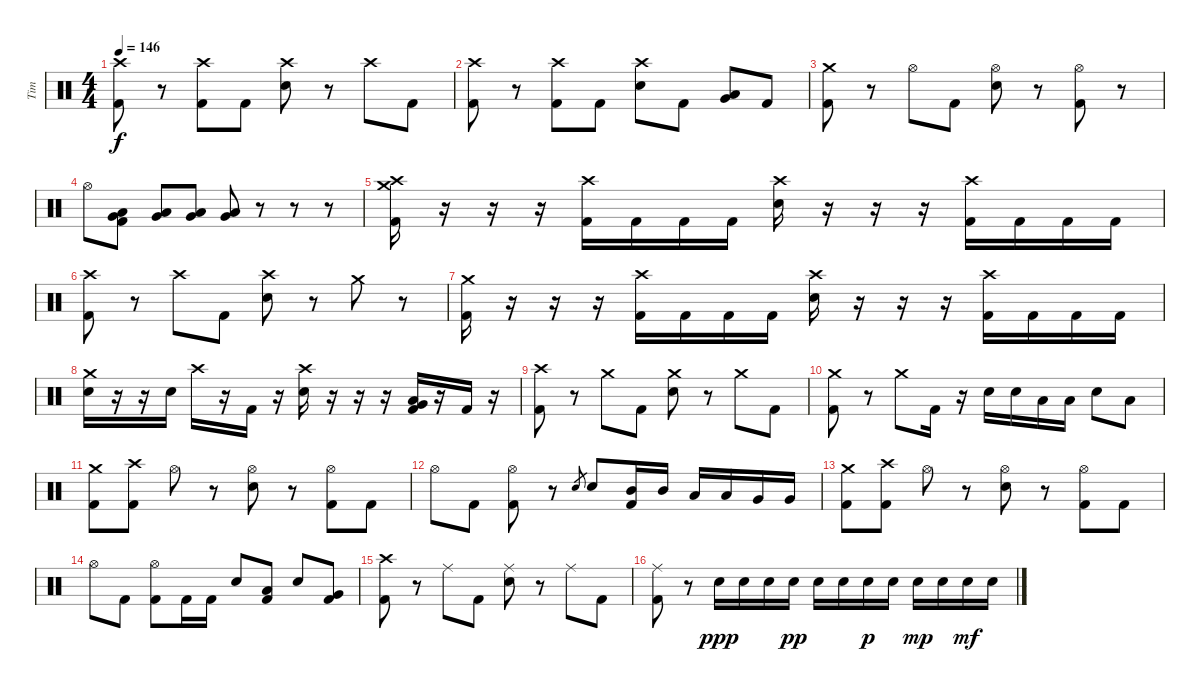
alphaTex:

\track ("Tim" "Tim") {instrument percussion}
\staff {score}
\articulation defaults
\ts (4 4)
\tempo 146
\clef neutral
\ks c
("Crash high (hit)" "Kick (hit) 2").8{dy f} r.8 ("Crash high (hit)" "Kick (hit) 2").8 "Kick (hit) 2".8 ("Crash high (hit)" "Electric Snare (hit)").8 r.8 "Crash high (hit)".8 "Kick (hit) 2".8 |
("Crash high (hit)" "Kick (hit) 2").8 r.8 ("Crash high (hit)" "Kick (hit) 2").8 "Kick (hit) 2".8 ("Crash high (hit)" "Electric Snare (hit)").8 "Kick (hit) 2".8 ("Low Tom (hit)" "Very Low Tom (hit)").8 "Kick (hit) 2".8 |
("Crash medium (hit)" "Kick (hit) 2").8 r.8 "Hi-Hat (open)".8 "Kick (hit) 2".8 ("Hi-Hat (open)" "Electric Snare (hit)").8 r.8 ("Hi-Hat (open)" "Kick (hit) 2").8 r.8 |
"Hi-Hat (open)".8 ("Low Tom (hit)" "Very Low Tom (hit)" "Kick (hit) 2").8 ("Low Tom (hit)" "Very Low Tom (hit)").8 ("Low Tom (hit)" "Very Low Tom (hit)").8 ("Low Tom (hit)" "Very Low Tom (hit)").8 r.8 r.8 r.8 |
("Crash medium (hit)" "Crash high (hit)" "Kick (hit) 2").16 r.16 r.16 r.16 ("Crash high (hit)" "Kick (hit) 2").16 "Kick (hit) 2".16 "Kick (hit) 2".16 "Kick (hit) 2".16 ("Crash high (hit)" "Electric Snare (hit)").16 r.16 r.16 r.16 ("Crash high (hit)" "Kick (hit) 2").16 "Kick (hit) 2".16 "Kick (hit) 2".16 "Kick (hit) 2".16 |
("Crash high (hit)" "Kick (hit) 2").8 r.8 "Crash high (hit)".8 "Kick (hit) 2".8 ("Crash high (hit)" "Electric Snare (hit)").8 r.8 "Crash medium (hit)".8 r.8 |
("Crash medium (hit)" "Kick (hit) 2").16 r.16 r.16 r.16 ("Crash high (hit)" "Kick (hit) 2").16 "Kick (hit) 2".16 "Kick (hit) 2".16 "Kick (hit) 2".16 ("Crash high (hit)" "Electric Snare (hit)").16 r.16 r.16 r.16 ("Crash high (hit)" "Kick (hit) 2").16 "Kick (hit) 2".16 "Kick (hit) 2".16 "Kick (hit) 2".16 |
("Crash medium (hit)" "Electric Snare (hit)").16 r.16 r.16 "Electric Snare (hit)".16 "Crash high (hit)".16 r.16 "Kick (hit) 2".16 r.16 ("Crash high (hit)" "Electric Snare (hit)").16 r.16 r.16 r.16 ("Low Tom (hit)" "Very Low Tom (hit)" "Kick (hit) 2").16 r.16 "Kick (hit) 2".16 r.16 |
("Crash high (hit)" "Kick (hit) 2").8 r.8 "Crash medium (hit)".8 "Kick (hit) 2".8 ("Crash medium (hit)" "Electric Snare (hit)").8 r.8 "Crash medium (hit)".8 "Kick (hit) 2".8 |
("Crash medium (hit)" "Kick (hit) 2").8 r.8 "Crash medium (hit)".8 "Kick (hit) 2".16 r.16 "Electric Snare (hit)".16 "Electric Snare (hit)".16 "Low Tom (hit)".16 "Low Tom (hit)".16 "Electric Snare (hit)".8 "Low Tom (hit)".8 |
("Crash medium (hit)" "Kick (hit) 2").8 ("Crash high (hit)" "Kick (hit) 2").8 "Hi-Hat (open)".8 r.8 ("Hi-Hat (open)" "Electric Snare (hit)").8 r.8 ("Hi-Hat (open)" "Kick (hit) 2").8 "Kick (hit) 2".8 |
"Hi-Hat (open)".8 "Kick (hit) 2".8 ("Hi-Hat (open)" "Kick (hit) 2").8 r.8 "Electric Snare (hit)".8{gr} "Electric Snare (hit)".8 ("Mid Tom (hit)" "Kick (hit) 2").16 "Mid Tom (hit)".16 "Low Tom (hit)".16 "Low Tom (hit)".16 "Very Low Tom (hit)".16 "Very Low Tom (hit)".16 |
("Crash medium (hit)" "Kick (hit) 2").8 ("Crash high (hit)" "Kick (hit) 2").8 "Hi-Hat (open)".8 r.8 ("Hi-Hat (open)" "Electric Snare (hit)").8 r.8 ("Hi-Hat (open)" "Kick (hit) 2").8 "Kick (hit) 2".8 |
"Hi-Hat (open)".8 "Kick (hit) 2".8 ("Hi-Hat (open)" "Kick (hit) 2").8 "Kick (hit) 2".16 "Kick (hit) 2".16 "Electric Snare (hit)".8 ("Low Tom (hit)" "Kick (hit) 2").8 "Electric Snare (hit)".8 ("Very Low Tom (hit)" "Kick (hit) 2").8 |
("Crash high (hit)" "Kick (hit) 2").8 r.8 "Ride (middle)".8 "Kick (hit) 2".8 ("Ride (middle)" "Electric Snare (hit)").8 r.8 "Ride (middle)".8 "Kick (hit) 2".8 |
("Ride (middle)" "Kick (hit) 2").8 r.8 "Electric Snare (hit)".16{dy ppp} "Electric Snare (hit)".16 "Electric Snare (hit)".16 "Electric Snare (hit)".16{dy pp} "Electric Snare (hit)".16 "Electric Snare (hit)".16 "Electric Snare (hit)".16{dy p} "Electric Snare (hit)".16 "Electric Snare (hit)".16{dy mp} "Electric Snare (hit)".16 "Electric Snare (hit)".16{dy mf} "Electric Snare (hit)".16
